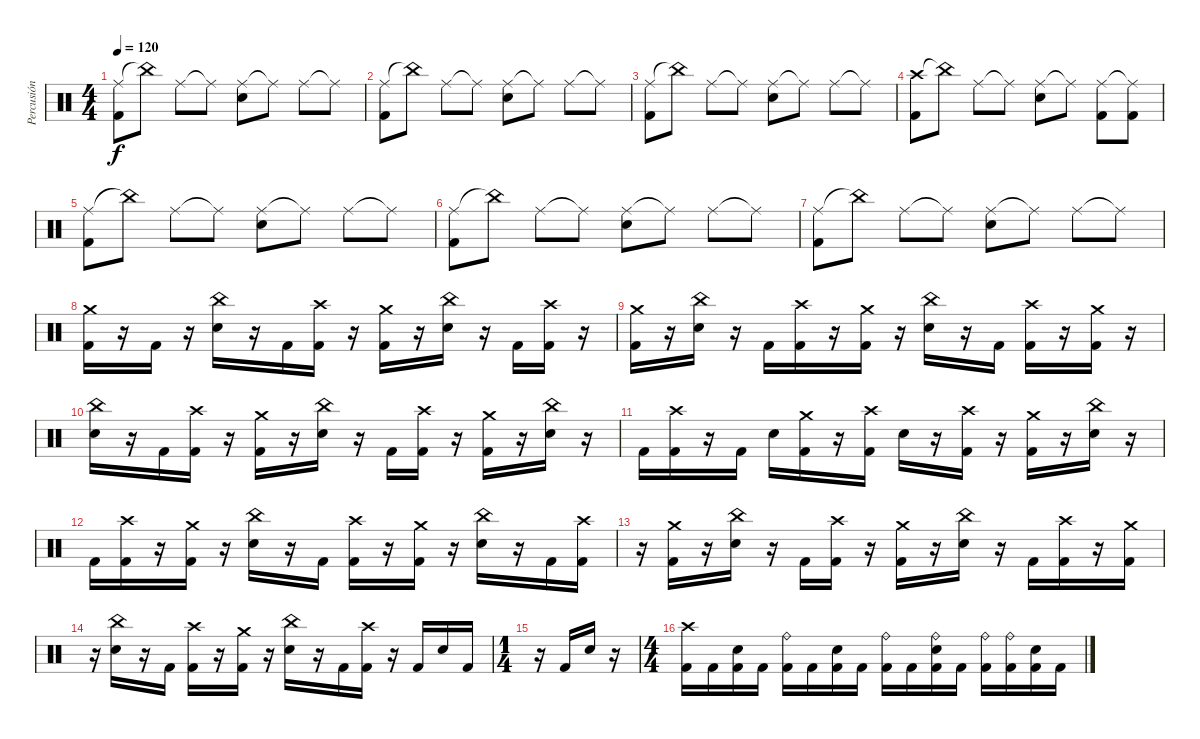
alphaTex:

\track ("Percusión" "Percusión") {instrument percussion}
\staff {score}
\articulation defaults
\ts (4 4)
\tempo 120
\clef neutral
\ks c
("Ride (middle)" "Kick (hit) 2").8{dy f} "China (hit)"{t}.8 "Ride (middle)".8 "Ride (middle)"{t}.8 ("Ride (middle)" "Snare (hit) 2").8 "Ride (middle)"{t}.8 "Ride (middle)".8 "Ride (middle)"{t}.8 |
("Ride (middle)" "Kick (hit) 2").8 "China (hit)"{t}.8 "Ride (middle)".8 "Ride (middle)"{t}.8 ("Ride (middle)" "Snare (hit) 2").8 "Ride (middle)"{t}.8 "Ride (middle)".8 "Ride (middle)"{t}.8 |
("Ride (middle)" "Kick (hit) 2").8 "China (hit)"{t}.8 "Ride (middle)".8 "Ride (middle)"{t}.8 ("Ride (middle)" "Snare (hit) 2").8 "Ride (middle)"{t}.8 "Ride (middle)".8 "Ride (middle)"{t}.8 |
("Crash high (hit)" "Kick (hit) 2").8 "China (hit)"{t}.8 "Ride (middle)".8 "Ride (middle)"{t}.8 ("Ride (middle)" "Snare (hit) 2").8 "Ride (middle)"{t}.8 ("Ride (middle)" "Kick (hit) 2").8 ("Ride (middle)"{t} "Kick (hit) 2").8 |
("Ride (middle)" "Kick (hit) 2").8 "China (hit)"{t}.8 "Ride (middle)".8 "Ride (middle)"{t}.8 ("Ride (middle)" "Snare (hit) 2").8 "Ride (middle)"{t}.8 "Ride (middle)".8 "Ride (middle)"{t}.8 |
("Ride (middle)" "Kick (hit) 2").8 "China (hit)"{t}.8 "Ride (middle)".8 "Ride (middle)"{t}.8 ("Ride (middle)" "Snare (hit) 2").8 "Ride (middle)"{t}.8 "Ride (middle)".8 "Ride (middle)"{t}.8 |
("Ride (middle)" "Kick (hit) 2").8 "China (hit)"{t}.8 "Ride (middle)".8 "Ride (middle)"{t}.8 ("Ride (middle)" "Snare (hit) 2").8 "Ride (middle)"{t}.8 "Ride (middle)".8 "Ride (middle)"{t}.8 |
("Crash medium (hit)" "Kick (hit) 2").16 r.16 "Kick (hit) 2".16 r.16 ("China (hit)" "Snare (hit) 2").16 r.16 "Kick (hit) 2".16 ("Crash high (hit)" "Kick (hit) 2").16 r.16 ("Crash medium (hit)" "Kick (hit) 2").16 r.16 ("China (hit)" "Snare (hit) 2").16 r.16 "Kick (hit) 2".16 ("Crash high (hit)" "Kick (hit) 2").16 r.16 |
("Crash medium (hit)" "Kick (hit) 2").16 r.16 ("China (hit)" "Snare (hit) 2").16 r.16 "Kick (hit) 2".16 ("Crash high (hit)" "Kick (hit) 2").16 r.16 ("Crash medium (hit)" "Kick (hit) 2").16 r.16 ("China (hit)" "Snare (hit) 2").16 r.16 "Kick (hit) 2".16 ("Crash high (hit)" "Kick (hit) 2").16 r.16 ("Crash medium (hit)" "Kick (hit) 2").16 r.16 |
("China (hit)" "Snare (hit) 2").16 r.16 "Kick (hit) 2".16 ("Crash high (hit)" "Kick (hit) 2").16 r.16 ("Crash medium (hit)" "Kick (hit) 2").16 r.16 ("China (hit)" "Snare (hit) 2").16 r.16 "Kick (hit) 2".16 ("Crash high (hit)" "Kick (hit) 2").16 r.16 ("Crash medium (hit)" "Kick (hit) 2").16 r.16 ("China (hit)" "Snare (hit) 2").16 r.16 |
"Kick (hit) 2".16 ("Crash high (hit)" "Kick (hit) 2").16 r.16 "Kick (hit) 2".16 "Snare (hit) 2".16 ("Crash medium (hit)" "Kick (hit) 2").16 r.16 ("Crash high (hit)" "Kick (hit) 2").16 "Snare (hit) 2".16 r.16 ("Crash high (hit)" "Kick (hit) 2").16 r.16 ("Crash medium (hit)" "Kick (hit) 2").16 r.16 ("China (hit)" "Snare (hit) 2").16 r.16 |
"Kick (hit) 2".16 ("Crash high (hit)" "Kick (hit) 2").16 r.16 ("Crash medium (hit)" "Kick (hit) 2").16 r.16 ("China (hit)" "Snare (hit) 2").16 r.16 "Kick (hit) 2".16 ("Crash high (hit)" "Kick (hit) 2").16 r.16 ("Crash medium (hit)" "Kick (hit) 2").16 r.16 ("China (hit)" "Snare (hit) 2").16 r.16 "Kick (hit) 2".16 ("Crash high (hit)" "Kick (hit) 2").16 |
r.16 ("Crash medium (hit)" "Kick (hit) 2").16 r.16 ("China (hit)" "Snare (hit) 2").16 r.16 "Kick (hit) 2".16 ("Crash high (hit)" "Kick (hit) 2").16 r.16 ("Crash medium (hit)" "Kick (hit) 2").16 r.16 ("China (hit)" "Snare (hit) 2").16 r.16 "Kick (hit) 2".16 ("Crash high (hit)" "Kick (hit) 2").16 r.16 ("Crash medium (hit)" "Kick (hit) 2").16 |
r.16 ("China (hit)" "Snare (hit) 2").16 r.16 "Kick (hit) 2".16 ("Crash high (hit)" "Kick (hit) 2").16 r.16 ("Crash medium (hit)" "Kick (hit) 2").16 r.16 ("China (hit)" "Snare (hit) 2").16 r.16 "Kick (hit) 2".16 ("Crash high (hit)" "Kick (hit) 2").16 r.16 "Kick (hit) 2".16 "Snare (hit) 2".16 "Kick (hit) 2".16 |
\ts (1 4)
r.16 "Kick (hit) 2".16 "Snare (hit) 2".16 r.16 |
\ts (4 4)
("Crash high (hit)" "Kick (hit) 2").16 "Kick (hit) 2".16 ("Snare (hit) 2" "Kick (hit) 2").16 "Kick (hit) 2".16 ("Ride (bell)" "Kick (hit) 2").16 "Kick (hit) 2".16 ("Snare (hit) 2" "Kick (hit) 2").16 "Kick (hit) 2".16 ("Ride (bell)" "Kick (hit) 2").16 "Kick (hit) 2".16 ("Ride (bell)" "Snare (hit) 2" "Kick (hit) 2").16 "Kick (hit) 2".16 ("Ride (bell)" "Kick (hit) 2").16 ("Ride (bell)" "Kick (hit) 2").16 ("Snare (hit) 2" "Kick (hit) 2").16 "Kick (hit) 2".16
